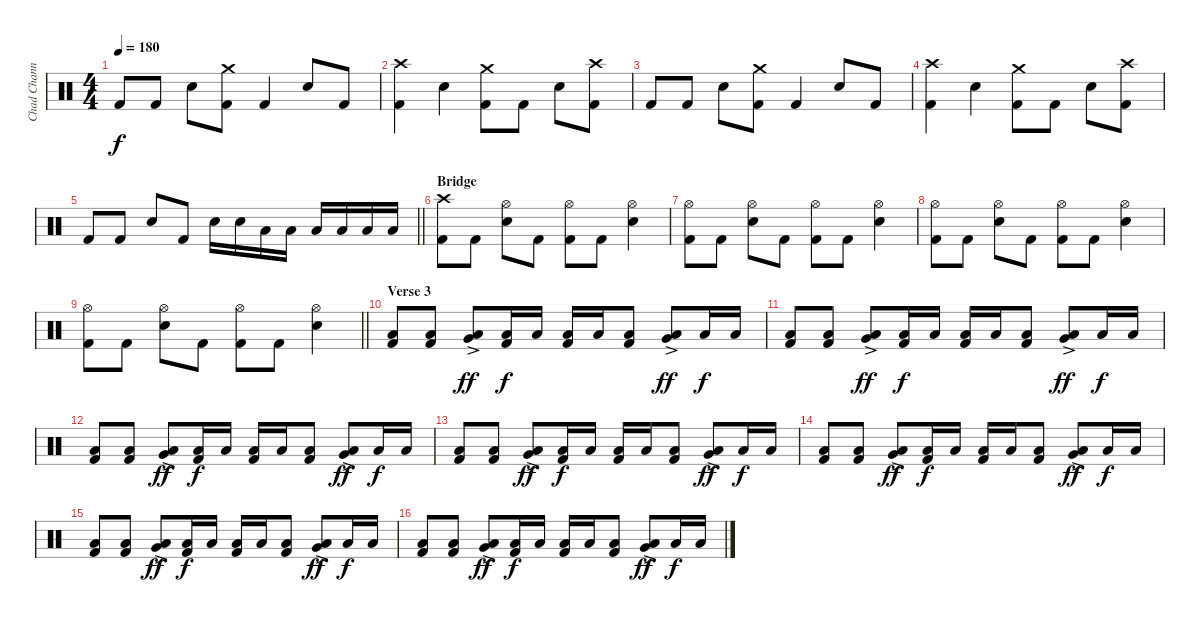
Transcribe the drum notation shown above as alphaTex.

\track ("Chad Channing" "Chad Chann") {instrument percussion}
\staff {score}
\articulation defaults
\ts (4 4)
\tempo 180
\clef neutral
\ks c "Kick (hit) 2".8{dy f} "Kick (hit) 2".8 "Snare (hit) 2".8
("Crash medium (hit)" "Kick (hit) 2").8 "Kick (hit) 2".4 "Snare (hit) 2".8 "Kick (hit) 2".8 |
("Crash high (hit)" "Kick (hit) 2").4 "Snare (hit) 2".4 ("Crash medium (hit)" "Kick (hit) 2").8 "Kick (hit) 2".8 "Snare (hit) 2".8 ("Crash high (hit)" "Kick (hit) 2").8 |
"Kick (hit) 2".8 "Kick (hit) 2".8 "Snare (hit) 2".8 ("Crash medium (hit)" "Kick (hit) 2").8 "Kick (hit) 2".4 "Snare (hit) 2".8 "Kick (hit) 2".8 |
("Crash high (hit)" "Kick (hit) 2").4 "Snare (hit) 2".4 ("Crash medium (hit)" "Kick (hit) 2").8 "Kick (hit) 2".8 "Snare (hit) 2".8 ("Crash high (hit)" "Kick (hit) 2").8 |
\barLineRight lightlight "Kick (hit) 2".8 "Kick (hit) 2".8 "Snare (hit) 2".8 "Kick (hit) 2".8 "Snare (hit) 2".16 "Snare (hit) 2".16 "Low Tom (hit)".16 "Low Tom (hit)".16 "Low Floor Tom (hit)".16 "Low Floor Tom (hit)".16 "Low Floor Tom (hit)".16 "Low Floor Tom (hit)".16
|
\section ("" "Bridge")
("Crash high (hit)" "Kick (hit) 2").8 "Kick (hit) 2".8 ("Hi-Hat (open)" "Snare (hit) 2").8 "Kick (hit) 2".8 ("Hi-Hat (open)" "Kick (hit) 2").8 "Kick (hit) 2".8 ("Hi-Hat (open)" "Snare (hit) 2").4 |
("Hi-Hat (open)" "Kick (hit) 2").8 "Kick (hit) 2".8 ("Hi-Hat (open)" "Snare (hit) 2").8 "Kick (hit) 2".8 ("Hi-Hat (open)" "Kick (hit) 2").8 "Kick (hit) 2".8 ("Hi-Hat (open)" "Snare (hit) 2").4 |
("Hi-Hat (open)" "Kick (hit) 2").8 "Kick (hit) 2".8 ("Hi-Hat (open)" "Snare (hit) 2").8 "Kick (hit) 2".8 ("Hi-Hat (open)" "Kick (hit) 2").8 "Kick (hit) 2".8 ("Hi-Hat (open)" "Snare (hit) 2").4 |
\barLineRight lightlight
("Hi-Hat (open)" "Kick (hit) 2").8 "Kick (hit) 2".8 ("Hi-Hat (open)" "Snare (hit) 2").8 "Kick (hit) 2".8 ("Hi-Hat (open)" "Kick (hit) 2").8 "Kick (hit) 2".8 ("Hi-Hat (open)" "Snare (hit) 2").4 |
\section ("" "Verse 3")
("Low Tom (hit)" "Kick (hit) 2").8 ("Low Tom (hit)" "Kick (hit) 2").8 ("Very Low Tom (hit)"{ac} "Low Floor Tom (hit)"{ac}).8{dy ff} ("Low Tom (hit)" "Kick (hit) 2").16{dy f} "Low Tom (hit)".16 ("Low Tom (hit)" "Kick (hit) 2").16 "Low Tom (hit)".16 ("Low Tom (hit)" "Kick (hit) 2").8 ("Very Low Tom (hit)"{ac} "Low Floor Tom (hit)"{ac}).8{dy ff} "Low Tom (hit)".16{dy f} "Low Tom (hit)".16 |
("Low Tom (hit)" "Kick (hit) 2").8 ("Low Tom (hit)" "Kick (hit) 2").8 ("Very Low Tom (hit)"{ac} "Low Floor Tom (hit)"{ac}).8{dy ff} ("Low Tom (hit)" "Kick (hit) 2").16{dy f} "Low Tom (hit)".16 ("Low Tom (hit)" "Kick (hit) 2").16 "Low Tom (hit)".16 ("Low Tom (hit)" "Kick (hit) 2").8 ("Very Low Tom (hit)"{ac} "Low Floor Tom (hit)"{ac}).8{dy ff} "Low Tom (hit)".16{dy f} "Low Tom (hit)".16 |
("Low Tom (hit)" "Kick (hit) 2").8 ("Low Tom (hit)" "Kick (hit) 2").8 ("Very Low Tom (hit)"{ac} "Low Floor Tom (hit)"{ac}).8{dy ff} ("Low Tom (hit)" "Kick (hit) 2").16{dy f} "Low Tom (hit)".16 ("Low Tom (hit)" "Kick (hit) 2").16 "Low Tom (hit)".16 ("Low Tom (hit)" "Kick (hit) 2").8 ("Very Low Tom (hit)"{ac} "Low Floor Tom (hit)"{ac}).8{dy ff} "Low Tom (hit)".16{dy f} "Low Tom (hit)".16 |
("Low Tom (hit)" "Kick (hit) 2").8 ("Low Tom (hit)" "Kick (hit) 2").8 ("Very Low Tom (hit)"{ac} "Low Floor Tom (hit)"{ac}).8{dy ff} ("Low Tom (hit)" "Kick (hit) 2").16{dy f} "Low Tom (hit)".16 ("Low Tom (hit)" "Kick (hit) 2").16 "Low Tom (hit)".16 ("Low Tom (hit)" "Kick (hit) 2").8 ("Very Low Tom (hit)"{ac} "Low Floor Tom (hit)"{ac}).8{dy ff} "Low Tom (hit)".16{dy f} "Low Tom (hit)".16 |
("Low Tom (hit)" "Kick (hit) 2").8 ("Low Tom (hit)" "Kick (hit) 2").8 ("Very Low Tom (hit)"{ac} "Low Floor Tom (hit)"{ac}).8{dy ff} ("Low Tom (hit)" "Kick (hit) 2").16{dy f} "Low Tom (hit)".16 ("Low Tom (hit)" "Kick (hit) 2").16 "Low Tom (hit)".16 ("Low Tom (hit)" "Kick (hit) 2").8 ("Very Low Tom (hit)"{ac} "Low Floor Tom (hit)"{ac}).8{dy ff} "Low Tom (hit)".16{dy f} "Low Tom (hit)".16 |
("Low Tom (hit)" "Kick (hit) 2").8 ("Low Tom (hit)" "Kick (hit) 2").8 ("Very Low Tom (hit)"{ac} "Low Floor Tom (hit)"{ac}).8{dy ff} ("Low Tom (hit)" "Kick (hit) 2").16{dy f} "Low Tom (hit)".16 ("Low Tom (hit)" "Kick (hit) 2").16 "Low Tom (hit)".16 ("Low Tom (hit)" "Kick (hit) 2").8 ("Very Low Tom (hit)"{ac} "Low Floor Tom (hit)"{ac}).8{dy ff} "Low Tom (hit)".16{dy f} "Low Tom (hit)".16 |
("Low Tom (hit)" "Kick (hit) 2").8 ("Low Tom (hit)" "Kick (hit) 2").8 ("Very Low Tom (hit)"{ac} "Low Floor Tom (hit)"{ac}).8{dy ff} ("Low Tom (hit)" "Kick (hit) 2").16{dy f} "Low Tom (hit)".16 ("Low Tom (hit)" "Kick (hit) 2").16 "Low Tom (hit)".16 ("Low Tom (hit)" "Kick (hit) 2").8 ("Very Low Tom (hit)"{ac} "Low Floor Tom (hit)"{ac}).8{dy ff} "Low Tom (hit)".16{dy f} "Low Tom (hit)".16
